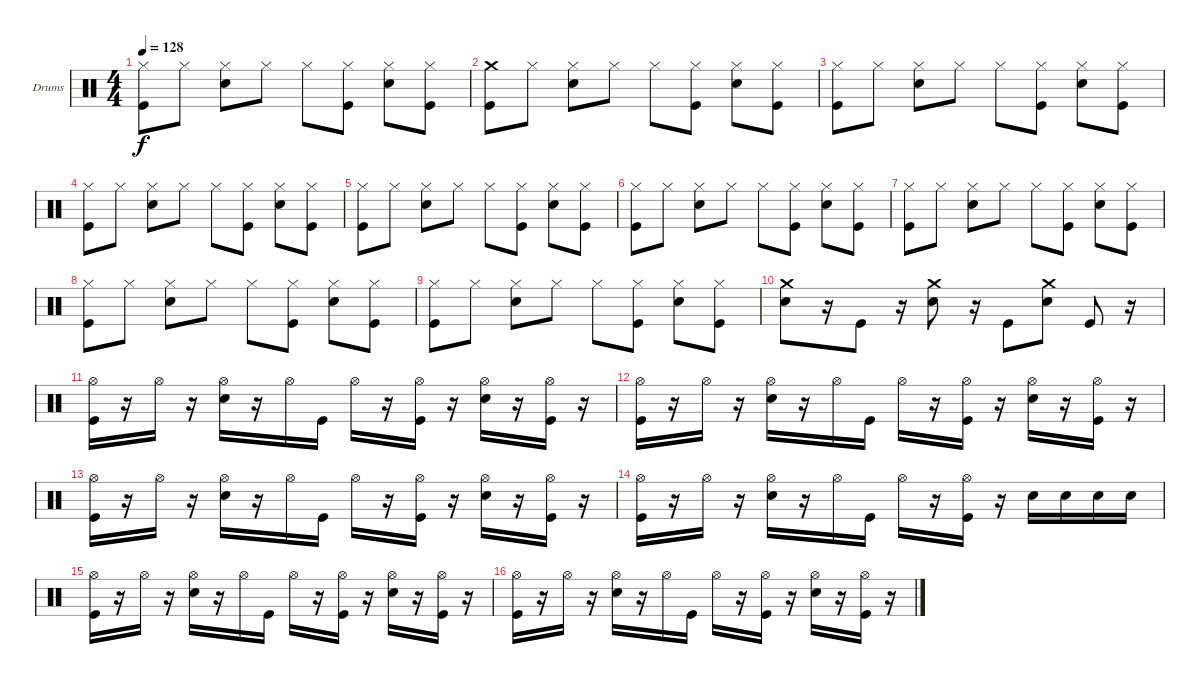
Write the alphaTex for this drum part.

\bracketExtendMode groupsimilarinstruments
\firstSystemTrackNameOrientation horizontal
\otherSystemsTrackNameOrientation horizontal
\track ("Drumkit" "Drums") {instrument percussion}
\staff {score}
\articulation defaults
\ts (4 4)
\tempo 128
\clef neutral
\ks c
("Kick (hit)" "Hi-Hat (closed)").8{dy f} "Hi-Hat (closed)".8 ("Snare (hit) 2" "Hi-Hat (closed)").8 "Hi-Hat (closed)".8 "Hi-Hat (closed)".8 ("Kick (hit)" "Hi-Hat (closed)").8 ("Snare (hit) 2" "Hi-Hat (closed)").8 ("Kick (hit)" "Hi-Hat (closed)").8 |
("Kick (hit)" "Crash medium (hit)").8 "Hi-Hat (closed)".8 ("Snare (hit) 2" "Hi-Hat (closed)").8 "Hi-Hat (closed)".8 "Hi-Hat (closed)".8 ("Kick (hit)" "Hi-Hat (closed)").8 ("Snare (hit) 2" "Hi-Hat (closed)").8 ("Kick (hit)" "Hi-Hat (closed)").8 |
("Kick (hit)" "Hi-Hat (closed)").8 "Hi-Hat (closed)".8 ("Snare (hit) 2" "Hi-Hat (closed)").8 "Hi-Hat (closed)".8 "Hi-Hat (closed)".8 ("Kick (hit)" "Hi-Hat (closed)").8 ("Snare (hit) 2" "Hi-Hat (closed)").8 ("Kick (hit)" "Hi-Hat (closed)").8 |
("Kick (hit)" "Hi-Hat (closed)").8 "Hi-Hat (closed)".8 ("Snare (hit) 2" "Hi-Hat (closed)").8 "Hi-Hat (closed)".8 "Hi-Hat (closed)".8 ("Kick (hit)" "Hi-Hat (closed)").8 ("Snare (hit) 2" "Hi-Hat (closed)").8 ("Kick (hit)" "Hi-Hat (closed)").8 |
("Kick (hit)" "Hi-Hat (closed)").8 "Hi-Hat (closed)".8 ("Snare (hit) 2" "Hi-Hat (closed)").8 "Hi-Hat (closed)".8 "Hi-Hat (closed)".8 ("Kick (hit)" "Hi-Hat (closed)").8 ("Snare (hit) 2" "Hi-Hat (closed)").8 ("Kick (hit)" "Hi-Hat (closed)").8 |
("Kick (hit)" "Hi-Hat (closed)").8 "Hi-Hat (closed)".8 ("Snare (hit) 2" "Hi-Hat (closed)").8 "Hi-Hat (closed)".8 "Hi-Hat (closed)".8 ("Kick (hit)" "Hi-Hat (closed)").8 ("Snare (hit) 2" "Hi-Hat (closed)").8 ("Kick (hit)" "Hi-Hat (closed)").8 |
("Kick (hit)" "Hi-Hat (closed)").8 "Hi-Hat (closed)".8 ("Snare (hit) 2" "Hi-Hat (closed)").8 "Hi-Hat (closed)".8 "Hi-Hat (closed)".8 ("Kick (hit)" "Hi-Hat (closed)").8 ("Snare (hit) 2" "Hi-Hat (closed)").8 ("Kick (hit)" "Hi-Hat (closed)").8 |
("Kick (hit)" "Hi-Hat (closed)").8 "Hi-Hat (closed)".8 ("Snare (hit) 2" "Hi-Hat (closed)").8 "Hi-Hat (closed)".8 "Hi-Hat (closed)".8 ("Kick (hit)" "Hi-Hat (closed)").8 ("Snare (hit) 2" "Hi-Hat (closed)").8 ("Kick (hit)" "Hi-Hat (closed)").8 |
("Kick (hit)" "Hi-Hat (closed)").8 "Hi-Hat (closed)".8 ("Snare (hit) 2" "Hi-Hat (closed)").8 "Hi-Hat (closed)".8 "Hi-Hat (closed)".8 ("Kick (hit)" "Hi-Hat (closed)").8 ("Snare (hit) 2" "Hi-Hat (closed)").8 ("Kick (hit)" "Hi-Hat (closed)").8 |
("Snare (hit) 2" "Crash medium (hit)").8 r.16 "Kick (hit)".8 r.16 ("Snare (hit) 2" "Crash medium (hit)").8 r.16 "Kick (hit)".8 ("Snare (hit) 2" "Crash medium (hit)").8 "Kick (hit)".8 r.16 |
("Kick (hit)" "Hi-Hat (open)").16 r.16 "Hi-Hat (open)".16 r.16 ("Snare (hit) 2" "Hi-Hat (open)").16 r.16 "Hi-Hat (open)".16 "Kick (hit)".16 "Hi-Hat (open)".16 r.16 ("Kick (hit)" "Hi-Hat (open)").16 r.16 ("Snare (hit) 2" "Hi-Hat (open)").16 r.16 ("Kick (hit)" "Hi-Hat (open)").16 r.16 |
("Kick (hit)" "Hi-Hat (open)").16 r.16 "Hi-Hat (open)".16 r.16 ("Snare (hit) 2" "Hi-Hat (open)").16 r.16 "Hi-Hat (open)".16 "Kick (hit)".16 "Hi-Hat (open)".16 r.16 ("Kick (hit)" "Hi-Hat (open)").16 r.16 ("Snare (hit) 2" "Hi-Hat (open)").16 r.16 ("Kick (hit)" "Hi-Hat (open)").16 r.16 |
("Kick (hit)" "Hi-Hat (open)").16 r.16 "Hi-Hat (open)".16 r.16 ("Snare (hit) 2" "Hi-Hat (open)").16 r.16 "Hi-Hat (open)".16 "Kick (hit)".16 "Hi-Hat (open)".16 r.16 ("Kick (hit)" "Hi-Hat (open)").16 r.16 ("Snare (hit) 2" "Hi-Hat (open)").16 r.16 ("Kick (hit)" "Hi-Hat (open)").16 r.16 |
("Kick (hit)" "Hi-Hat (open)").16 r.16 "Hi-Hat (open)".16 r.16 ("Snare (hit) 2" "Hi-Hat (open)").16 r.16 "Hi-Hat (open)".16 "Kick (hit)".16 "Hi-Hat (open)".16 r.16 ("Kick (hit)" "Hi-Hat (open)").16 r.16 "Snare (hit) 2".16 "Snare (hit) 2".16 "Snare (hit) 2".16 "Snare (hit) 2".16 |
("Kick (hit)" "Hi-Hat (open)").16 r.16 "Hi-Hat (open)".16 r.16 ("Snare (hit) 2" "Hi-Hat (open)").16 r.16 "Hi-Hat (open)".16 "Kick (hit)".16 "Hi-Hat (open)".16 r.16 ("Kick (hit)" "Hi-Hat (open)").16 r.16 ("Snare (hit) 2" "Hi-Hat (open)").16 r.16 ("Kick (hit)" "Hi-Hat (open)").16 r.16 |
("Kick (hit)" "Hi-Hat (open)").16 r.16 "Hi-Hat (open)".16 r.16 ("Snare (hit) 2" "Hi-Hat (open)").16 r.16 "Hi-Hat (open)".16 "Kick (hit)".16 "Hi-Hat (open)".16 r.16 ("Kick (hit)" "Hi-Hat (open)").16 r.16 ("Snare (hit) 2" "Hi-Hat (open)").16 r.16 ("Kick (hit)" "Hi-Hat (open)").16 r.16
